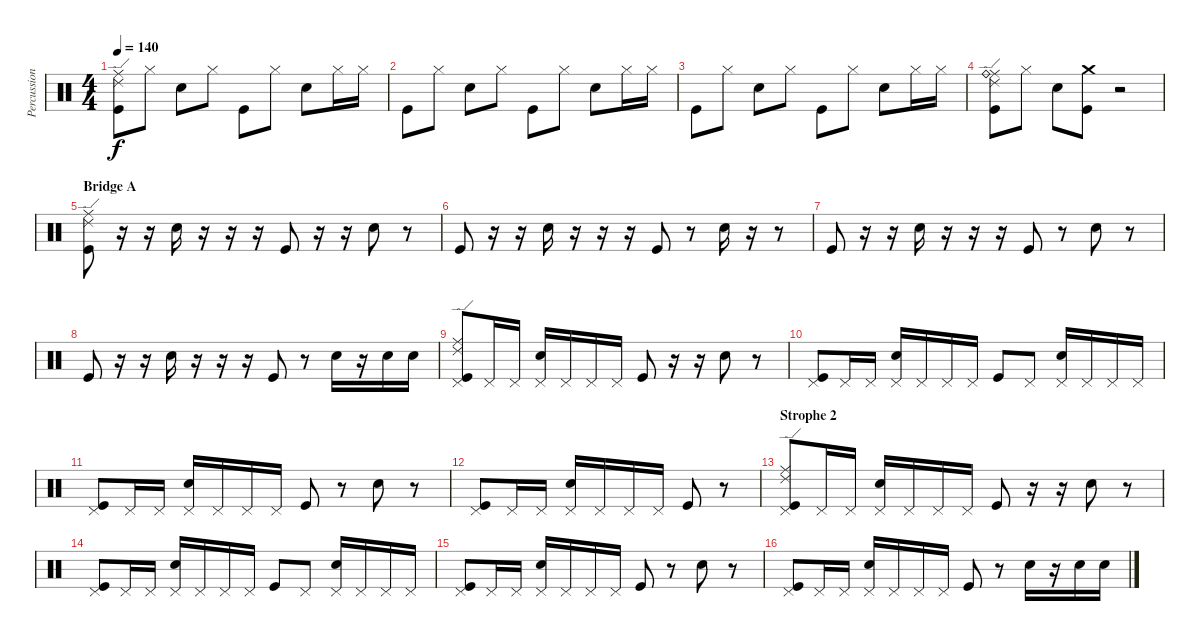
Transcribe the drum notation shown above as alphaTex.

\track ("Percussion" "Percussion") {instrument percussion}
\staff {score}
\articulation defaults
\ts (4 4)
\tempo 140
\clef neutral
\ks c
("Ride (middle)" "Ride (edge) 2" "Kick (hit)").8{dy f} "Hi-Hat (closed)".8 "Snare (hit) 2".8 "Hi-Hat (closed)".8 "Kick (hit)".8 "Hi-Hat (closed)".8 "Snare (hit) 2".8 "Hi-Hat (closed)".16 "Hi-Hat (closed)".16 |
"Kick (hit)".8 "Hi-Hat (closed)".8 "Snare (hit) 2".8 "Hi-Hat (closed)".8 "Kick (hit)".8 "Hi-Hat (closed)".8 "Snare (hit) 2".8 "Hi-Hat (closed)".16 "Hi-Hat (closed)".16 |
"Kick (hit)".8 "Hi-Hat (closed)".8 "Snare (hit) 2".8 "Hi-Hat (closed)".8 "Kick (hit)".8 "Hi-Hat (closed)".8 "Snare (hit) 2".8 "Hi-Hat (closed)".16 "Hi-Hat (closed)".16 |
("Ride (edge) 2" "Ride (middle)" "Ride (bell)" "Kick (hit)").8 "Hi-Hat (closed)".8 "Snare (hit) 2".8 ("Crash medium (hit)" "Kick (hit)").8 r.2 |
\section ("" "Bridge A")
("Ride (middle)" "Ride (edge) 2" "Kick (hit)").8 r.16 r.16 "Snare (hit) 2".16 r.16 r.16 r.16 "Kick (hit)".8 r.16 r.16 "Snare (hit) 2".8 r.8 |
"Kick (hit)".8 r.16 r.16 "Snare (hit) 2".16 r.16 r.16 r.16 "Kick (hit)".8 r.8 "Snare (hit) 2".16 r.16 r.8 |
"Kick (hit)".8 r.16 r.16 "Snare (hit) 2".16 r.16 r.16 r.16 "Kick (hit)".8 r.8 "Snare (hit) 2".8 r.8 |
"Kick (hit)".8 r.16 r.16 "Snare (hit) 2".16 r.16 r.16 r.16 "Kick (hit)".8 r.8 "Snare (hit) 2".16 r.16 "Snare (hit) 2".16 "Snare (hit) 2".16 |
("Ride (middle)" "Ride (edge) 2" "Pedal Hi-Hat (hit)" "Kick (hit)").8 "Pedal Hi-Hat (hit)".16 "Pedal Hi-Hat (hit)".16 ("Pedal Hi-Hat (hit)" "Snare (hit) 2").16 "Pedal Hi-Hat (hit)".16 "Pedal Hi-Hat (hit)".16 "Pedal Hi-Hat (hit)".16 "Kick (hit)".8 r.16 r.16 "Snare (hit) 2".8 r.8 |
("Pedal Hi-Hat (hit)" "Kick (hit)").8 "Pedal Hi-Hat (hit)".16 "Pedal Hi-Hat (hit)".16 ("Pedal Hi-Hat (hit)" "Snare (hit) 2").16 "Pedal Hi-Hat (hit)".16 "Pedal Hi-Hat (hit)".16 "Pedal Hi-Hat (hit)".16 "Kick (hit)".8 "Pedal Hi-Hat (hit)".8 ("Pedal Hi-Hat (hit)" "Snare (hit) 2").16 "Pedal Hi-Hat (hit)".16 "Pedal Hi-Hat (hit)".16 "Pedal Hi-Hat (hit)".16 |
("Pedal Hi-Hat (hit)" "Kick (hit)").8 "Pedal Hi-Hat (hit)".16 "Pedal Hi-Hat (hit)".16 ("Pedal Hi-Hat (hit)" "Snare (hit) 2").16 "Pedal Hi-Hat (hit)".16 "Pedal Hi-Hat (hit)".16 "Pedal Hi-Hat (hit)".16 "Kick (hit)".8 r.8 "Snare (hit) 2".8 r.8 |
("Pedal Hi-Hat (hit)" "Kick (hit)").8 "Pedal Hi-Hat (hit)".16 "Pedal Hi-Hat (hit)".16 ("Pedal Hi-Hat (hit)" "Snare (hit) 2").16 "Pedal Hi-Hat (hit)".16 "Pedal Hi-Hat (hit)".16 "Pedal Hi-Hat (hit)".16 "Kick (hit)".8 r.8 |
\section ("" "Strophe 2")
("Ride (middle)" "Ride (edge) 2" "Pedal Hi-Hat (hit)" "Kick (hit)").8 "Pedal Hi-Hat (hit)".16 "Pedal Hi-Hat (hit)".16 ("Pedal Hi-Hat (hit)" "Snare (hit) 2").16 "Pedal Hi-Hat (hit)".16 "Pedal Hi-Hat (hit)".16 "Pedal Hi-Hat (hit)".16 "Kick (hit)".8 r.16 r.16 "Snare (hit) 2".8 r.8 |
("Pedal Hi-Hat (hit)" "Kick (hit)").8 "Pedal Hi-Hat (hit)".16 "Pedal Hi-Hat (hit)".16 ("Pedal Hi-Hat (hit)" "Snare (hit) 2").16 "Pedal Hi-Hat (hit)".16 "Pedal Hi-Hat (hit)".16 "Pedal Hi-Hat (hit)".16 "Kick (hit)".8 "Pedal Hi-Hat (hit)".8 ("Pedal Hi-Hat (hit)" "Snare (hit) 2").16 "Pedal Hi-Hat (hit)".16 "Pedal Hi-Hat (hit)".16 "Pedal Hi-Hat (hit)".16 |
("Pedal Hi-Hat (hit)" "Kick (hit)").8 "Pedal Hi-Hat (hit)".16 "Pedal Hi-Hat (hit)".16 ("Pedal Hi-Hat (hit)" "Snare (hit) 2").16 "Pedal Hi-Hat (hit)".16 "Pedal Hi-Hat (hit)".16 "Pedal Hi-Hat (hit)".16 "Kick (hit)".8 r.8 "Snare (hit) 2".8 r.8 |
("Pedal Hi-Hat (hit)" "Kick (hit)").8 "Pedal Hi-Hat (hit)".16 "Pedal Hi-Hat (hit)".16 ("Pedal Hi-Hat (hit)" "Snare (hit) 2").16 "Pedal Hi-Hat (hit)".16 "Pedal Hi-Hat (hit)".16 "Pedal Hi-Hat (hit)".16 "Kick (hit)".8 r.8 "Snare (hit) 2".16 r.16 "Snare (hit) 2".16 "Snare (hit) 2".16
